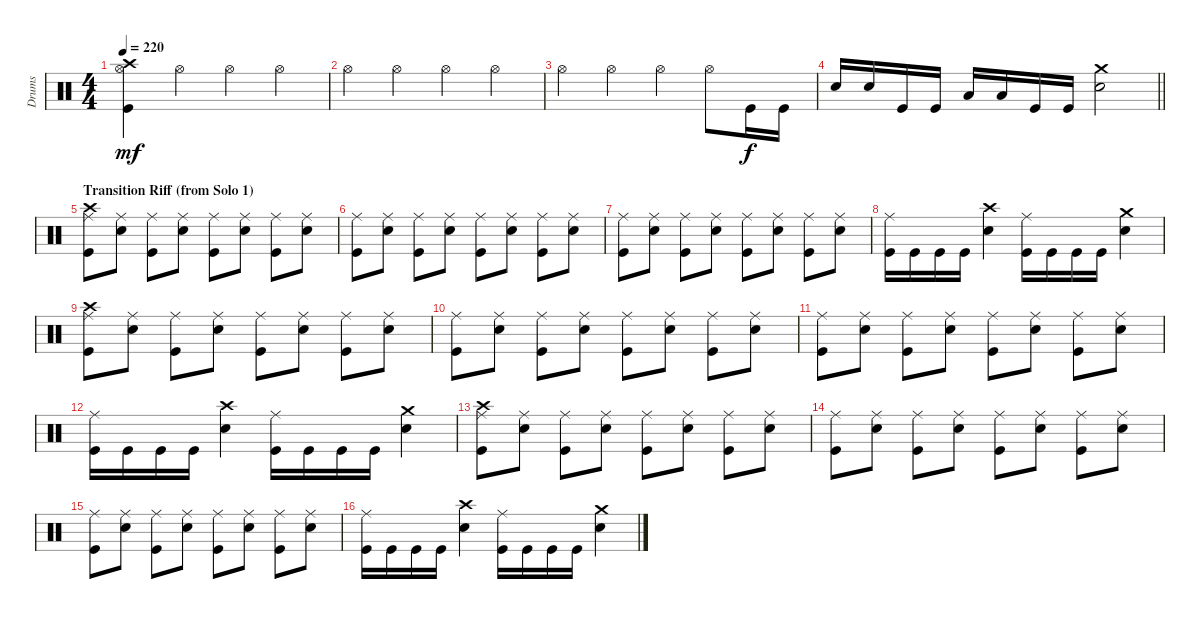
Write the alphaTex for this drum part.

\track ("Drums" "Drums") {instrument percussion}
\staff {score}
\articulation defaults
\ts (4 4)
\tempo 220
\clef neutral
\ks c
("Crash high (hit)" "Hi-Hat (open)" "Kick (hit)").4{dy mf} "Hi-Hat (open)".4 "Hi-Hat (open)".4 "Hi-Hat (open)".4 |
"Hi-Hat (open)".4 "Hi-Hat (open)".4 "Hi-Hat (open)".4 "Hi-Hat (open)".4 |
"Hi-Hat (open)".4 "Hi-Hat (open)".4 "Hi-Hat (open)".4 "Hi-Hat (open)".8 "Kick (hit)".16{dy f} "Kick (hit)".16 |
\barLineRight lightlight "Electric Snare (hit)".16 "Electric Snare (hit)".16 "Kick (hit)".16 "Kick (hit)".16 "Low Tom (hit)".16 "Low Tom (hit)".16 "Kick (hit)".16 "Kick (hit)".16
("Crash medium (hit)" "Electric Snare (hit)").2 |
\section ("" "Transition Riff (from Solo 1)")
("Crash high (hit)" "Ride (middle)" "Kick (hit)").8 ("Ride (middle)" "Electric Snare (hit)").8 ("Ride (middle)" "Kick (hit)").8 ("Ride (middle)" "Electric Snare (hit)").8 ("Ride (middle)" "Kick (hit)").8 ("Ride (middle)" "Electric Snare (hit)").8 ("Ride (middle)" "Kick (hit)").8 ("Ride (middle)" "Electric Snare (hit)").8 |
("Ride (middle)" "Kick (hit)").8 ("Ride (middle)" "Electric Snare (hit)").8 ("Ride (middle)" "Kick (hit)").8 ("Ride (middle)" "Electric Snare (hit)").8 ("Ride (middle)" "Kick (hit)").8 ("Ride (middle)" "Electric Snare (hit)").8 ("Ride (middle)" "Kick (hit)").8 ("Ride (middle)" "Electric Snare (hit)").8 |
("Ride (middle)" "Kick (hit)").8 ("Ride (middle)" "Electric Snare (hit)").8 ("Ride (middle)" "Kick (hit)").8 ("Ride (middle)" "Electric Snare (hit)").8 ("Ride (middle)" "Kick (hit)").8 ("Ride (middle)" "Electric Snare (hit)").8 ("Ride (middle)" "Kick (hit)").8 ("Ride (middle)" "Electric Snare (hit)").8 |
("Ride (middle)" "Kick (hit)").16 "Kick (hit)".16 "Kick (hit)".16 "Kick (hit)".16 ("Crash high (hit)" "Electric Snare (hit)").4 ("Ride (middle)" "Kick (hit)").16 "Kick (hit)".16 "Kick (hit)".16 "Kick (hit)".16 ("Crash medium (hit)" "Electric Snare (hit)").4 |
("Crash high (hit)" "Ride (middle)" "Kick (hit)").8 ("Ride (middle)" "Electric Snare (hit)").8 ("Ride (middle)" "Kick (hit)").8 ("Ride (middle)" "Electric Snare (hit)").8 ("Ride (middle)" "Kick (hit)").8 ("Ride (middle)" "Electric Snare (hit)").8 ("Ride (middle)" "Kick (hit)").8 ("Ride (middle)" "Electric Snare (hit)").8 |
("Ride (middle)" "Kick (hit)").8 ("Ride (middle)" "Electric Snare (hit)").8 ("Ride (middle)" "Kick (hit)").8 ("Ride (middle)" "Electric Snare (hit)").8 ("Ride (middle)" "Kick (hit)").8 ("Ride (middle)" "Electric Snare (hit)").8 ("Ride (middle)" "Kick (hit)").8 ("Ride (middle)" "Electric Snare (hit)").8 |
("Ride (middle)" "Kick (hit)").8 ("Ride (middle)" "Electric Snare (hit)").8 ("Ride (middle)" "Kick (hit)").8 ("Ride (middle)" "Electric Snare (hit)").8 ("Ride (middle)" "Kick (hit)").8 ("Ride (middle)" "Electric Snare (hit)").8 ("Ride (middle)" "Kick (hit)").8 ("Ride (middle)" "Electric Snare (hit)").8 |
("Ride (middle)" "Kick (hit)").16 "Kick (hit)".16 "Kick (hit)".16 "Kick (hit)".16 ("Crash high (hit)" "Electric Snare (hit)").4 ("Ride (middle)" "Kick (hit)").16 "Kick (hit)".16 "Kick (hit)".16 "Kick (hit)".16 ("Crash medium (hit)" "Electric Snare (hit)").4 |
("Crash high (hit)" "Ride (middle)" "Kick (hit)").8 ("Ride (middle)" "Electric Snare (hit)").8 ("Ride (middle)" "Kick (hit)").8 ("Ride (middle)" "Electric Snare (hit)").8 ("Ride (middle)" "Kick (hit)").8 ("Ride (middle)" "Electric Snare (hit)").8 ("Ride (middle)" "Kick (hit)").8 ("Ride (middle)" "Electric Snare (hit)").8 |
("Ride (middle)" "Kick (hit)").8 ("Ride (middle)" "Electric Snare (hit)").8 ("Ride (middle)" "Kick (hit)").8 ("Ride (middle)" "Electric Snare (hit)").8 ("Ride (middle)" "Kick (hit)").8 ("Ride (middle)" "Electric Snare (hit)").8 ("Ride (middle)" "Kick (hit)").8 ("Ride (middle)" "Electric Snare (hit)").8 |
("Ride (middle)" "Kick (hit)").8 ("Ride (middle)" "Electric Snare (hit)").8 ("Ride (middle)" "Kick (hit)").8 ("Ride (middle)" "Electric Snare (hit)").8 ("Ride (middle)" "Kick (hit)").8 ("Ride (middle)" "Electric Snare (hit)").8 ("Ride (middle)" "Kick (hit)").8 ("Ride (middle)" "Electric Snare (hit)").8 |
("Ride (middle)" "Kick (hit)").16 "Kick (hit)".16 "Kick (hit)".16 "Kick (hit)".16 ("Crash high (hit)" "Electric Snare (hit)").4 ("Ride (middle)" "Kick (hit)").16 "Kick (hit)".16 "Kick (hit)".16 "Kick (hit)".16 ("Crash medium (hit)" "Electric Snare (hit)").4
